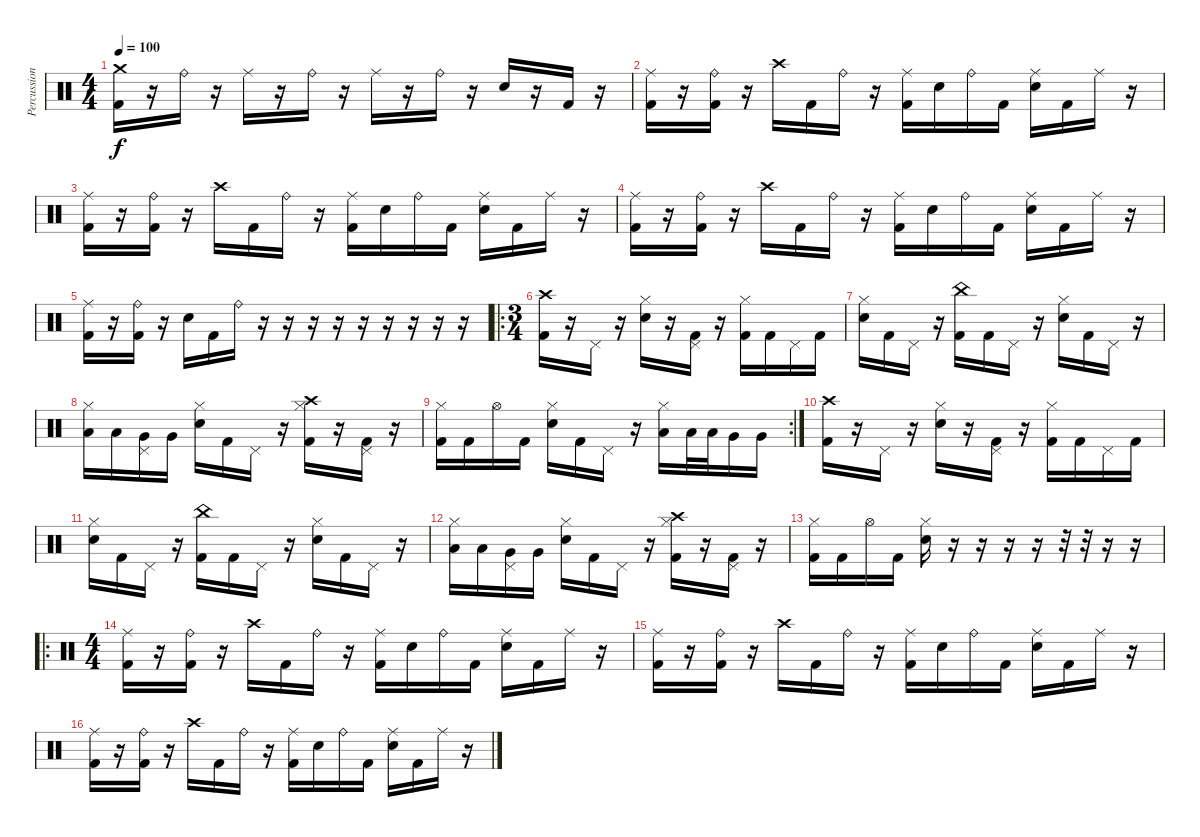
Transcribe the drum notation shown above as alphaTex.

\track ("Percussion" "Percussion") {instrument percussion}
\staff {score}
\articulation defaults
\ts (4 4)
\tempo 100
\clef neutral
\ks c
("Kick (hit) 2" "Crash medium (hit)").16{dy f} r.16 "Ride (bell)".16 r.16 "Ride (middle)".16 r.16 "Ride (bell)".16 r.16 "Ride (middle)".16 r.16 "Ride (bell)".16 r.16 "Electric Snare (hit)".16 r.16 "Kick (hit) 2".16 r.16 |
("Kick (hit) 2" "Ride (middle)").16 r.16 ("Kick (hit) 2" "Ride (bell)").16 r.16 "Crash high (hit)".16 "Kick (hit) 2".16 "Ride (bell)".16 r.16 ("Kick (hit) 2" "Ride (middle)").16 "Electric Snare (hit)".16 "Ride (bell)".16 "Kick (hit) 2".16 ("Electric Snare (hit)" "Ride (middle)").16 "Kick (hit) 2".16 "Ride (middle)".16 r.16 |
("Kick (hit) 2" "Ride (middle)").16 r.16 ("Kick (hit) 2" "Ride (bell)").16 r.16 "Crash high (hit)".16 "Kick (hit) 2".16 "Ride (bell)".16 r.16 ("Kick (hit) 2" "Ride (middle)").16 "Electric Snare (hit)".16 "Ride (bell)".16 "Kick (hit) 2".16 ("Electric Snare (hit)" "Ride (middle)").16 "Kick (hit) 2".16 "Ride (middle)".16 r.16 |
("Kick (hit) 2" "Ride (middle)").16 r.16 ("Kick (hit) 2" "Ride (bell)").16 r.16 "Crash high (hit)".16 "Kick (hit) 2".16 "Ride (bell)".16 r.16 ("Kick (hit) 2" "Ride (middle)").16 "Electric Snare (hit)".16 "Ride (bell)".16 "Kick (hit) 2".16 ("Electric Snare (hit)" "Ride (middle)").16 "Kick (hit) 2".16 "Ride (middle)".16 r.16 |
("Kick (hit) 2" "Ride (middle)").16 r.16 ("Kick (hit) 2" "Ride (bell)").16 r.16 "Electric Snare (hit)".16 "Kick (hit) 2".16 "Ride (bell)".16 r.16 r.16 r.16 r.16 r.16 r.16 r.16 r.16 r.16 |
\ro
\ts (3 4)
("Kick (hit) 2" "Crash high (hit)").16 r.16 "Pedal Hi-Hat (hit)".16 r.16 ("Electric Snare (hit)" "Hi-Hat (closed)").16 r.16 ("Kick (hit) 2" "Pedal Hi-Hat (hit)").16 r.16 ("Kick (hit) 2" "Hi-Hat (closed)").16 "Kick (hit) 2".16 "Pedal Hi-Hat (hit)".16 "Kick (hit) 2".16 |
("Electric Snare (hit)" "Hi-Hat (closed)").16 "Kick (hit) 2".16 "Pedal Hi-Hat (hit)".16 r.16 ("Kick (hit) 2" "China (hit)").16 "Kick (hit) 2".16 "Pedal Hi-Hat (hit)".16 r.16 ("Electric Snare (hit)" "Hi-Hat (closed)").16 "Kick (hit) 2".16 "Pedal Hi-Hat (hit)".16 r.16 |
("Low Tom (hit)" "Hi-Hat (closed)").16 "Low Tom (hit)".16 ("Very Low Tom (hit)" "Pedal Hi-Hat (hit)").16 "Very Low Tom (hit)".16 ("Electric Snare (hit)" "Hi-Hat (closed)").16 "Kick (hit) 2".16 "Pedal Hi-Hat (hit)".16 r.16 ("Kick (hit) 2" "Hi-Hat (closed)" "Crash high (hit)").16 r.16 ("Kick (hit) 2" "Pedal Hi-Hat (hit)").16 r.16 |
\rc 2
("Kick (hit) 2" "Hi-Hat (closed)").16 "Kick (hit) 2".16 "Hi-Hat (open)".16 "Kick (hit) 2".16 ("Electric Snare (hit)" "Hi-Hat (closed)").16 "Kick (hit) 2".16 "Pedal Hi-Hat (hit)".16 r.16 ("Low Tom (hit)" "Hi-Hat (closed)").16 "Low Tom (hit)".32 "Low Tom (hit)".32 "Very Low Tom (hit)".16 "Very Low Tom (hit)".16 |
("Kick (hit) 2" "Crash high (hit)").16 r.16 "Pedal Hi-Hat (hit)".16 r.16 ("Electric Snare (hit)" "Hi-Hat (closed)").16 r.16 ("Kick (hit) 2" "Pedal Hi-Hat (hit)").16 r.16 ("Kick (hit) 2" "Hi-Hat (closed)").16 "Kick (hit) 2".16 "Pedal Hi-Hat (hit)".16 "Kick (hit) 2".16 |
("Electric Snare (hit)" "Hi-Hat (closed)").16 "Kick (hit) 2".16 "Pedal Hi-Hat (hit)".16 r.16 ("Kick (hit) 2" "China (hit)").16 "Kick (hit) 2".16 "Pedal Hi-Hat (hit)".16 r.16 ("Electric Snare (hit)" "Hi-Hat (closed)").16 "Kick (hit) 2".16 "Pedal Hi-Hat (hit)".16 r.16 |
("Low Tom (hit)" "Hi-Hat (closed)").16 "Low Tom (hit)".16 ("Very Low Tom (hit)" "Pedal Hi-Hat (hit)").16 "Very Low Tom (hit)".16 ("Electric Snare (hit)" "Hi-Hat (closed)").16 "Kick (hit) 2".16 "Pedal Hi-Hat (hit)".16 r.16 ("Kick (hit) 2" "Hi-Hat (closed)" "Crash high (hit)").16 r.16 ("Kick (hit) 2" "Pedal Hi-Hat (hit)").16 r.16 |
("Kick (hit) 2" "Hi-Hat (closed)").16 "Kick (hit) 2".16 "Hi-Hat (open)".16 "Kick (hit) 2".16 ("Electric Snare (hit)" "Hi-Hat (closed)").16 r.16 r.16 r.16 r.16 r.32 r.32 r.16 r.16 |
\ro
\ts (4 4)
("Kick (hit) 2" "Ride (middle)").16 r.16 ("Kick (hit) 2" "Ride (bell)").16 r.16 "Crash high (hit)".16 "Kick (hit) 2".16 "Ride (bell)".16 r.16 ("Kick (hit) 2" "Ride (middle)").16 "Electric Snare (hit)".16 "Ride (bell)".16 "Kick (hit) 2".16 ("Electric Snare (hit)" "Ride (middle)").16 "Kick (hit) 2".16 "Ride (middle)".16 r.16 |
("Kick (hit) 2" "Ride (middle)").16 r.16 ("Kick (hit) 2" "Ride (bell)").16 r.16 "Crash high (hit)".16 "Kick (hit) 2".16 "Ride (bell)".16 r.16 ("Kick (hit) 2" "Ride (middle)").16 "Electric Snare (hit)".16 "Ride (bell)".16 "Kick (hit) 2".16 ("Electric Snare (hit)" "Ride (middle)").16 "Kick (hit) 2".16 "Ride (middle)".16 r.16 |
("Kick (hit) 2" "Ride (middle)").16 r.16 ("Kick (hit) 2" "Ride (bell)").16 r.16 "Crash high (hit)".16 "Kick (hit) 2".16 "Ride (bell)".16 r.16 ("Kick (hit) 2" "Ride (middle)").16 "Electric Snare (hit)".16 "Ride (bell)".16 "Kick (hit) 2".16 ("Electric Snare (hit)" "Ride (middle)").16 "Kick (hit) 2".16 "Ride (middle)".16 r.16
